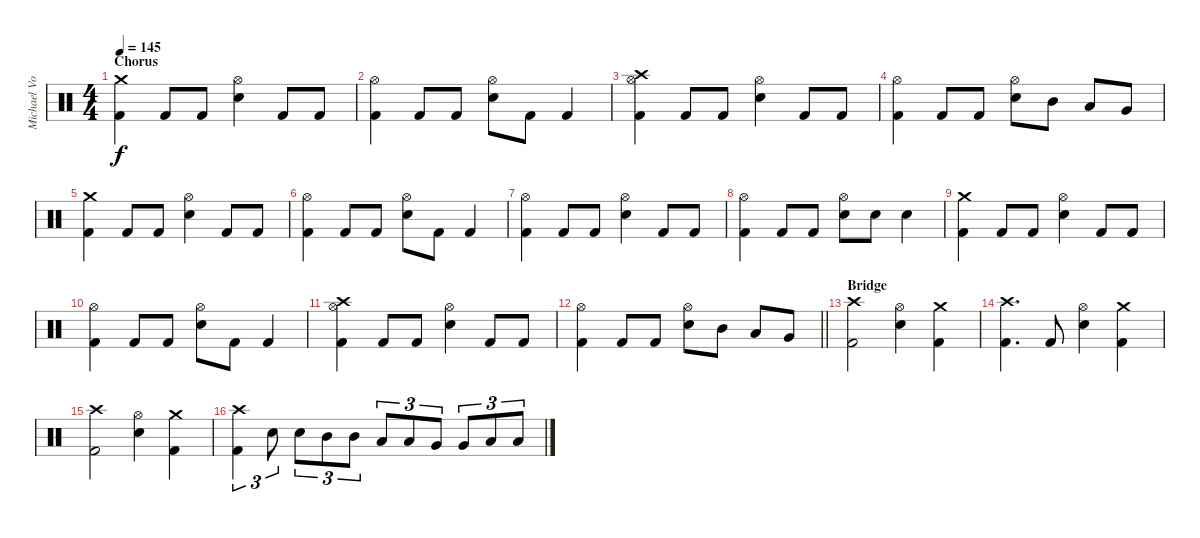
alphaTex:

\track ("Michael Von Knorring" "Michael Vo") {instrument percussion}
\staff {score}
\articulation defaults
\ts (4 4)
\section ("" "Chorus")
\tempo 145
\clef neutral
\ks c
("Crash medium (hit)" "Kick (hit) 2").4{dy f} "Kick (hit) 2".8 "Kick (hit) 2".8 ("Hi-Hat (open)" "Snare (hit) 2").4 "Kick (hit) 2".8 "Kick (hit) 2".8 |
("Hi-Hat (open)" "Kick (hit) 2").4 "Kick (hit) 2".8 "Kick (hit) 2".8 ("Hi-Hat (open)" "Snare (hit) 2").8 "Kick (hit) 2".8 "Kick (hit) 2".4 |
("Crash high (hit)" "Hi-Hat (open)" "Kick (hit) 2").4 "Kick (hit) 2".8 "Kick (hit) 2".8 ("Hi-Hat (open)" "Snare (hit) 2").4 "Kick (hit) 2".8 "Kick (hit) 2".8 |
("Hi-Hat (open)" "Kick (hit) 2").4 "Kick (hit) 2".8 "Kick (hit) 2".8 ("Hi-Hat (open)" "Snare (hit) 2").8 "Mid Tom (hit)".8 "Low Tom (hit)".8 "Very Low Tom (hit)".8 |
("Crash medium (hit)" "Kick (hit) 2").4 "Kick (hit) 2".8 "Kick (hit) 2".8 ("Hi-Hat (open)" "Snare (hit) 2").4 "Kick (hit) 2".8 "Kick (hit) 2".8 |
("Hi-Hat (open)" "Kick (hit) 2").4 "Kick (hit) 2".8 "Kick (hit) 2".8 ("Hi-Hat (open)" "Snare (hit) 2").8 "Kick (hit) 2".8 "Kick (hit) 2".4 |
("Hi-Hat (open)" "Kick (hit) 2").4 "Kick (hit) 2".8 "Kick (hit) 2".8 ("Hi-Hat (open)" "Snare (hit) 2").4 "Kick (hit) 2".8 "Kick (hit) 2".8 |
("Hi-Hat (open)" "Kick (hit) 2").4 "Kick (hit) 2".8 "Kick (hit) 2".8 ("Hi-Hat (open)" "Snare (hit) 2").8 "Snare (hit) 2".8 "Snare (hit) 2".4 |
("Crash medium (hit)" "Kick (hit) 2").4 "Kick (hit) 2".8 "Kick (hit) 2".8 ("Hi-Hat (open)" "Snare (hit) 2").4 "Kick (hit) 2".8 "Kick (hit) 2".8 |
("Hi-Hat (open)" "Kick (hit) 2").4 "Kick (hit) 2".8 "Kick (hit) 2".8 ("Hi-Hat (open)" "Snare (hit) 2").8 "Kick (hit) 2".8 "Kick (hit) 2".4 |
("Crash high (hit)" "Hi-Hat (open)" "Kick (hit) 2").4 "Kick (hit) 2".8 "Kick (hit) 2".8 ("Hi-Hat (open)" "Snare (hit) 2").4 "Kick (hit) 2".8 "Kick (hit) 2".8 |
\barLineRight lightlight
("Hi-Hat (open)" "Kick (hit) 2").4 "Kick (hit) 2".8 "Kick (hit) 2".8 ("Hi-Hat (open)" "Snare (hit) 2").8 "Mid Tom (hit)".8 "Low Tom (hit)".8 "Very Low Tom (hit)".8 |
\section ("" "Bridge")
("Crash high (hit)" "Kick (hit) 2").2 ("Hi-Hat (open)" "Snare (hit) 2").4 ("Crash medium (hit)" "Kick (hit) 2").4 |
("Crash high (hit)" "Kick (hit) 2").4{d} "Kick (hit) 2".8 ("Hi-Hat (open)" "Snare (hit) 2").4 ("Crash medium (hit)" "Kick (hit) 2").4 |
("Crash high (hit)" "Kick (hit) 2").2 ("Hi-Hat (open)" "Snare (hit) 2").4 ("Crash medium (hit)" "Kick (hit) 2").4 |
("Crash high (hit)" "Kick (hit) 2").4{tu (3 2)} "Snare (hit) 2".8{tu (3 2)} "Snare (hit) 2".8{tu (3 2)} "Mid Tom (hit)".8{tu (3 2)} "Mid Tom (hit)".8{tu (3 2)} "Low Tom (hit)".8{tu (3 2)} "Low Tom (hit)".8{tu (3 2)} "Very Low Tom (hit)".8{tu (3 2)} "Very Low Tom (hit)".8{tu (3 2)} "Low Floor Tom (hit)".8{tu (3 2)} "Low Floor Tom (hit)".8{tu (3 2)}
